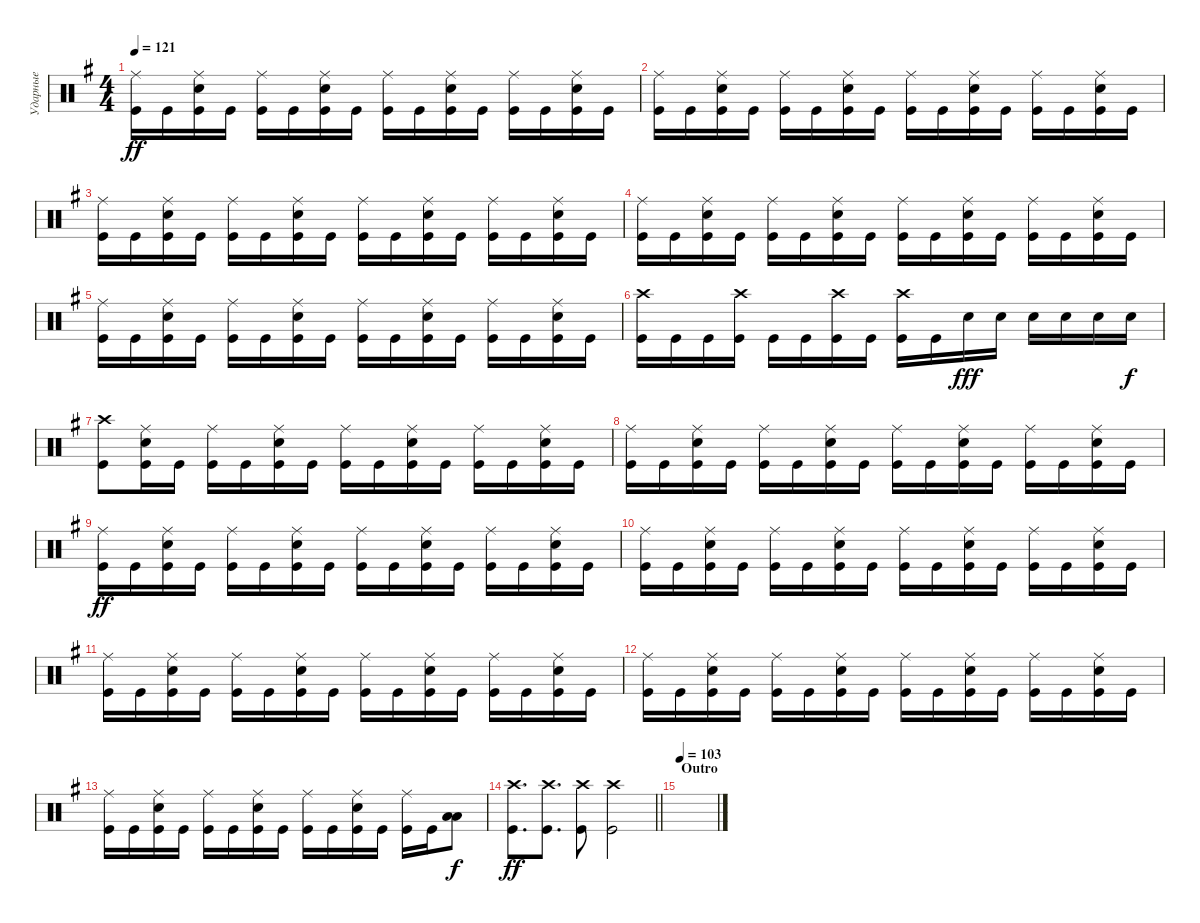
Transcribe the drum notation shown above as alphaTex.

\track ("Ударные" "Ударные") {instrument percussion}
\staff {score}
\articulation defaults
\ts (4 4)
\tempo 121
\clef neutral
\ks eminor
("Kick (hit)" "Ride (middle)").16{dy ff} "Kick (hit)".16 ("Kick (hit)" "Snare (hit) 2" "Ride (middle)").16 "Kick (hit)".16 ("Kick (hit)" "Ride (middle)").16 "Kick (hit)".16 ("Kick (hit)" "Snare (hit) 2" "Ride (middle)").16 "Kick (hit)".16 ("Kick (hit)" "Ride (middle)").16 "Kick (hit)".16 ("Kick (hit)" "Snare (hit) 2" "Ride (middle)").16 "Kick (hit)".16 ("Kick (hit)" "Ride (middle)").16 "Kick (hit)".16 ("Kick (hit)" "Snare (hit) 2" "Ride (middle)").16 "Kick (hit)".16 |
("Kick (hit)" "Ride (middle)").16 "Kick (hit)".16 ("Kick (hit)" "Snare (hit) 2" "Ride (middle)").16 "Kick (hit)".16 ("Kick (hit)" "Ride (middle)").16 "Kick (hit)".16 ("Kick (hit)" "Snare (hit) 2" "Ride (middle)").16 "Kick (hit)".16 ("Kick (hit)" "Ride (middle)").16 "Kick (hit)".16 ("Kick (hit)" "Snare (hit) 2" "Ride (middle)").16 "Kick (hit)".16 ("Kick (hit)" "Ride (middle)").16 "Kick (hit)".16 ("Kick (hit)" "Snare (hit) 2" "Ride (middle)").16 "Kick (hit)".16 |
("Kick (hit)" "Ride (middle)").16 "Kick (hit)".16 ("Kick (hit)" "Snare (hit) 2" "Ride (middle)").16 "Kick (hit)".16 ("Kick (hit)" "Ride (middle)").16 "Kick (hit)".16 ("Kick (hit)" "Snare (hit) 2" "Ride (middle)").16 "Kick (hit)".16 ("Kick (hit)" "Ride (middle)").16 "Kick (hit)".16 ("Kick (hit)" "Snare (hit) 2" "Ride (middle)").16 "Kick (hit)".16 ("Kick (hit)" "Ride (middle)").16 "Kick (hit)".16 ("Kick (hit)" "Snare (hit) 2" "Ride (middle)").16 "Kick (hit)".16 |
("Kick (hit)" "Ride (middle)").16 "Kick (hit)".16 ("Kick (hit)" "Snare (hit) 2" "Ride (middle)").16 "Kick (hit)".16 ("Kick (hit)" "Ride (middle)").16 "Kick (hit)".16 ("Kick (hit)" "Snare (hit) 2" "Ride (middle)").16 "Kick (hit)".16 ("Kick (hit)" "Ride (middle)").16 "Kick (hit)".16 ("Kick (hit)" "Snare (hit) 2" "Ride (middle)").16 "Kick (hit)".16 ("Kick (hit)" "Ride (middle)").16 "Kick (hit)".16 ("Kick (hit)" "Snare (hit) 2" "Ride (middle)").16 "Kick (hit)".16 |
("Kick (hit)" "Ride (middle)").16 "Kick (hit)".16 ("Kick (hit)" "Snare (hit) 2" "Ride (middle)").16 "Kick (hit)".16 ("Kick (hit)" "Ride (middle)").16 "Kick (hit)".16 ("Kick (hit)" "Snare (hit) 2" "Ride (middle)").16 "Kick (hit)".16 ("Kick (hit)" "Ride (middle)").16 "Kick (hit)".16 ("Kick (hit)" "Snare (hit) 2" "Ride (middle)").16 "Kick (hit)".16 ("Kick (hit)" "Ride (middle)").16 "Kick (hit)".16 ("Kick (hit)" "Snare (hit) 2" "Ride (middle)").16 "Kick (hit)".16 |
("Kick (hit)" "Crash high (hit)").16 "Kick (hit)".16 "Kick (hit)".16 ("Kick (hit)" "Crash high (hit)").16 "Kick (hit)".16 "Kick (hit)".16 ("Kick (hit)" "Crash high (hit)").16 "Kick (hit)".16 ("Kick (hit)" "Crash high (hit)").16 "Kick (hit)".16 "Snare (hit) 2".16{dy fff} "Snare (hit) 2".16 "Snare (hit) 2".16 "Snare (hit) 2".16 "Snare (hit) 2".16 "Snare (hit) 2".16{dy f} |
("Kick (hit)" "Crash high (hit)").8 ("Kick (hit)" "Snare (hit) 2" "Ride (middle)").16 "Kick (hit)".16 ("Kick (hit)" "Ride (middle)").16 "Kick (hit)".16 ("Kick (hit)" "Snare (hit) 2" "Ride (middle)").16 "Kick (hit)".16 ("Kick (hit)" "Ride (middle)").16 "Kick (hit)".16 ("Kick (hit)" "Snare (hit) 2" "Ride (middle)").16 "Kick (hit)".16 ("Kick (hit)" "Ride (middle)").16 "Kick (hit)".16 ("Kick (hit)" "Snare (hit) 2" "Ride (middle)").16 "Kick (hit)".16 |
("Kick (hit)" "Ride (middle)").16 "Kick (hit)".16 ("Kick (hit)" "Snare (hit) 2" "Ride (middle)").16 "Kick (hit)".16 ("Kick (hit)" "Ride (middle)").16 "Kick (hit)".16 ("Kick (hit)" "Snare (hit) 2" "Ride (middle)").16 "Kick (hit)".16 ("Kick (hit)" "Ride (middle)").16 "Kick (hit)".16 ("Kick (hit)" "Snare (hit) 2" "Ride (middle)").16 "Kick (hit)".16 ("Kick (hit)" "Ride (middle)").16 "Kick (hit)".16 ("Kick (hit)" "Snare (hit) 2" "Ride (middle)").16 "Kick (hit)".16 |
("Kick (hit)" "Ride (middle)").16{dy ff} "Kick (hit)".16 ("Kick (hit)" "Snare (hit) 2" "Ride (middle)").16 "Kick (hit)".16 ("Kick (hit)" "Ride (middle)").16 "Kick (hit)".16 ("Kick (hit)" "Snare (hit) 2" "Ride (middle)").16 "Kick (hit)".16 ("Kick (hit)" "Ride (middle)").16 "Kick (hit)".16 ("Kick (hit)" "Snare (hit) 2" "Ride (middle)").16 "Kick (hit)".16 ("Kick (hit)" "Ride (middle)").16 "Kick (hit)".16 ("Kick (hit)" "Snare (hit) 2" "Ride (middle)").16 "Kick (hit)".16 |
("Kick (hit)" "Ride (middle)").16 "Kick (hit)".16 ("Kick (hit)" "Snare (hit) 2" "Ride (middle)").16 "Kick (hit)".16 ("Kick (hit)" "Ride (middle)").16 "Kick (hit)".16 ("Kick (hit)" "Snare (hit) 2" "Ride (middle)").16 "Kick (hit)".16 ("Kick (hit)" "Ride (middle)").16 "Kick (hit)".16 ("Kick (hit)" "Snare (hit) 2" "Ride (middle)").16 "Kick (hit)".16 ("Kick (hit)" "Ride (middle)").16 "Kick (hit)".16 ("Kick (hit)" "Snare (hit) 2" "Ride (middle)").16 "Kick (hit)".16 |
("Kick (hit)" "Ride (middle)").16 "Kick (hit)".16 ("Kick (hit)" "Snare (hit) 2" "Ride (middle)").16 "Kick (hit)".16 ("Kick (hit)" "Ride (middle)").16 "Kick (hit)".16 ("Kick (hit)" "Snare (hit) 2" "Ride (middle)").16 "Kick (hit)".16 ("Kick (hit)" "Ride (middle)").16 "Kick (hit)".16 ("Kick (hit)" "Snare (hit) 2" "Ride (middle)").16 "Kick (hit)".16 ("Kick (hit)" "Ride (middle)").16 "Kick (hit)".16 ("Kick (hit)" "Snare (hit) 2" "Ride (middle)").16 "Kick (hit)".16 |
("Kick (hit)" "Ride (middle)").16 "Kick (hit)".16 ("Kick (hit)" "Snare (hit) 2" "Ride (middle)").16 "Kick (hit)".16 ("Kick (hit)" "Ride (middle)").16 "Kick (hit)".16 ("Kick (hit)" "Snare (hit) 2" "Ride (middle)").16 "Kick (hit)".16 ("Kick (hit)" "Ride (middle)").16 "Kick (hit)".16 ("Kick (hit)" "Snare (hit) 2" "Ride (middle)").16 "Kick (hit)".16 ("Kick (hit)" "Ride (middle)").16 "Kick (hit)".16 ("Kick (hit)" "Snare (hit) 2" "Ride (middle)").16 "Kick (hit)".16 |
("Kick (hit)" "Ride (middle)").16 "Kick (hit)".16 ("Kick (hit)" "Snare (hit) 2" "Ride (middle)").16 "Kick (hit)".16 ("Kick (hit)" "Ride (middle)").16 "Kick (hit)".16 ("Kick (hit)" "Snare (hit) 2" "Ride (middle)").16 "Kick (hit)".16 ("Kick (hit)" "Ride (middle)").16 "Kick (hit)".16 ("Kick (hit)" "Snare (hit) 2" "Ride (middle)").16 "Kick (hit)".16 ("Kick (hit)" "Ride (middle)").16 "Kick (hit)".16 ("Low Tom (hit)" "Low Tom (hit)").8{bd 240 dy f} |
\barLineRight lightlight
("Kick (hit)" "Crash high (hit)").8{d dy ff} ("Kick (hit)" "Crash high (hit)").8{d} ("Kick (hit)" "Crash high (hit)").8 ("Kick (hit)" "Crash high (hit)").2 |
\section ("" "Outro")
\tempo 103
